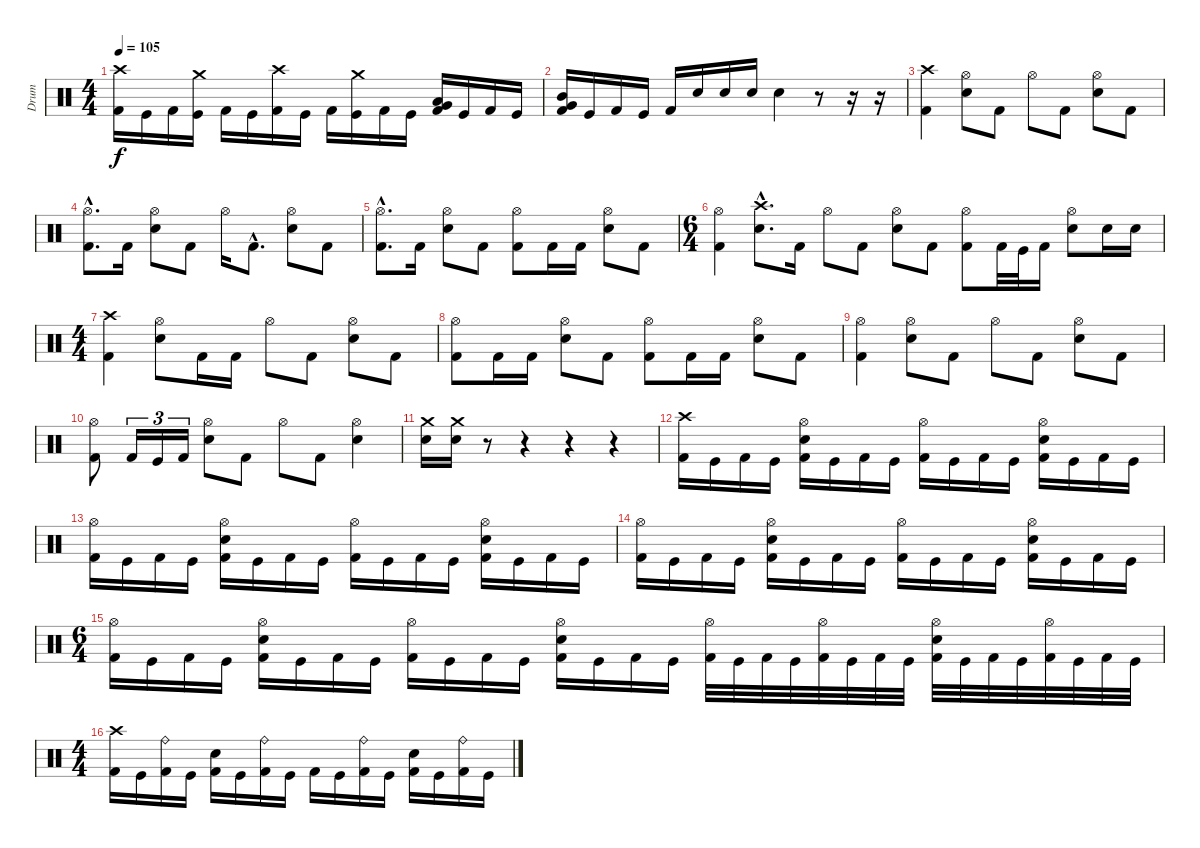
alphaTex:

\track ("Drum" "Drum") {instrument percussion}
\staff {score}
\articulation defaults
\ts (4 4)
\tempo 105
\clef neutral
\ks c
("Crash high (hit)" "Kick (hit) 2").16{dy f} "Kick (hit)".16 "Kick (hit) 2".16 ("Crash medium (hit)" "Kick (hit)").16 "Kick (hit) 2".16 "Kick (hit)".16 ("Crash high (hit)" "Kick (hit) 2").16 "Kick (hit)".16 "Kick (hit) 2".16 ("Crash medium (hit)" "Kick (hit)").16 "Kick (hit) 2".16 "Kick (hit)".16 ("Low Tom (hit)" "Very Low Tom (hit)" "Kick (hit) 2").16 "Kick (hit)".16 "Kick (hit) 2".16 "Kick (hit)".16 |
("Mid Tom (hit)" "Very Low Tom (hit)" "Kick (hit) 2").16 "Kick (hit)".16 "Kick (hit) 2".16 "Kick (hit)".16 "Kick (hit) 2".16 "Snare (hit) 2".16 "Snare (hit) 2".16 "Snare (hit) 2".16 "Snare (hit) 2".4 r.8 r.16 r.16 |
("Crash high (hit)" "Kick (hit) 2").4 ("Hi-Hat (open)" "Snare (hit) 2").8 "Kick (hit) 2".8 "Hi-Hat (open)".8 "Kick (hit) 2".8 ("Hi-Hat (open)" "Snare (hit) 2").8 "Kick (hit) 2".8 |
("Hi-Hat (open)"{hac} "Kick (hit) 2"{hac}).8{d} "Kick (hit) 2".16 ("Hi-Hat (open)" "Snare (hit) 2").8 "Kick (hit) 2".8 "Hi-Hat (open)".16 "Kick (hit) 2"{hac}.8{d} ("Hi-Hat (open)" "Snare (hit) 2").8 "Kick (hit) 2".8 |
("Hi-Hat (open)"{hac} "Kick (hit) 2"{hac}).8{d} "Kick (hit) 2".16 ("Hi-Hat (open)" "Snare (hit) 2").8 "Kick (hit) 2".8 ("Hi-Hat (open)" "Kick (hit) 2").8 "Kick (hit) 2".16 "Kick (hit) 2".16 ("Hi-Hat (open)" "Snare (hit) 2").8 "Kick (hit) 2".8 |
\ts (6 4)
("Hi-Hat (open)" "Kick (hit) 2").4 ("Crash high (hit)"{hac} "Snare (hit) 2"{hac}).8{d} "Kick (hit) 2".16 "Hi-Hat (open)".8 "Kick (hit) 2".8 ("Hi-Hat (open)" "Snare (hit) 2").8 "Kick (hit) 2".8 ("Hi-Hat (open)" "Kick (hit) 2").8 "Kick (hit) 2".32 "Kick (hit)".32 "Kick (hit) 2".16 ("Hi-Hat (open)" "Snare (hit) 2").8 "Snare (hit) 2".16 "Snare (hit) 2".16 |
\ts (4 4)
("Crash high (hit)" "Kick (hit) 2").4 ("Hi-Hat (open)" "Snare (hit) 2").8 "Kick (hit) 2".16 "Kick (hit) 2".16 "Hi-Hat (open)".8 "Kick (hit) 2".8 ("Hi-Hat (open)" "Snare (hit) 2").8 "Kick (hit) 2".8 |
("Hi-Hat (open)" "Kick (hit) 2").8 "Kick (hit) 2".16 "Kick (hit) 2".16 ("Hi-Hat (open)" "Snare (hit) 2").8 "Kick (hit) 2".8 ("Hi-Hat (open)" "Kick (hit) 2").8 "Kick (hit) 2".16 "Kick (hit) 2".16 ("Hi-Hat (open)" "Snare (hit) 2").8 "Kick (hit) 2".8 |
("Hi-Hat (open)" "Kick (hit) 2").4 ("Hi-Hat (open)" "Snare (hit) 2").8 "Kick (hit) 2".8 "Hi-Hat (open)".8 "Kick (hit) 2".8 ("Hi-Hat (open)" "Snare (hit) 2").8 "Kick (hit) 2".8 |
("Hi-Hat (open)" "Kick (hit) 2").8 "Kick (hit) 2".16{tu (3 2)} "Kick (hit)".16{tu (3 2)} "Kick (hit) 2".16{tu (3 2)} ("Hi-Hat (open)" "Snare (hit) 2").8 "Kick (hit) 2".8 "Hi-Hat (open)".8 "Kick (hit) 2".8 ("Hi-Hat (open)" "Snare (hit) 2").4 |
("Crash medium (hit)" "Snare (hit) 2").16 ("Crash medium (hit)" "Snare (hit) 2").16 r.8 r.4 r.4 r.4 |
("Crash high (hit)" "Kick (hit) 2").16 "Kick (hit)".16 "Kick (hit) 2".16 "Kick (hit)".16 ("Hi-Hat (open)" "Snare (hit) 2" "Kick (hit) 2").16 "Kick (hit)".16 "Kick (hit) 2".16 "Kick (hit)".16 ("Hi-Hat (open)" "Kick (hit) 2").16 "Kick (hit)".16 "Kick (hit) 2".16 "Kick (hit)".16 ("Hi-Hat (open)" "Snare (hit) 2" "Kick (hit) 2").16 "Kick (hit)".16 "Kick (hit) 2".16 "Kick (hit)".16 |
("Hi-Hat (open)" "Kick (hit) 2").16 "Kick (hit)".16 "Kick (hit) 2".16 "Kick (hit)".16 ("Hi-Hat (open)" "Snare (hit) 2" "Kick (hit) 2").16 "Kick (hit)".16 "Kick (hit) 2".16 "Kick (hit)".16 ("Hi-Hat (open)" "Kick (hit) 2").16 "Kick (hit)".16 "Kick (hit) 2".16 "Kick (hit)".16 ("Hi-Hat (open)" "Snare (hit) 2" "Kick (hit) 2").16 "Kick (hit)".16 "Kick (hit) 2".16 "Kick (hit)".16 |
("Hi-Hat (open)" "Kick (hit) 2").16 "Kick (hit)".16 "Kick (hit) 2".16 "Kick (hit)".16 ("Hi-Hat (open)" "Snare (hit) 2" "Kick (hit) 2").16 "Kick (hit)".16 "Kick (hit) 2".16 "Kick (hit)".16 ("Hi-Hat (open)" "Kick (hit) 2").16 "Kick (hit)".16 "Kick (hit) 2".16 "Kick (hit)".16 ("Hi-Hat (open)" "Snare (hit) 2" "Kick (hit) 2").16 "Kick (hit)".16 "Kick (hit) 2".16 "Kick (hit)".16 |
\ts (6 4)
("Hi-Hat (open)" "Kick (hit) 2").16 "Kick (hit)".16 "Kick (hit) 2".16 "Kick (hit)".16 ("Hi-Hat (open)" "Snare (hit) 2" "Kick (hit) 2").16 "Kick (hit)".16 "Kick (hit) 2".16 "Kick (hit)".16 ("Hi-Hat (open)" "Kick (hit) 2").16 "Kick (hit)".16 "Kick (hit) 2".16 "Kick (hit)".16 ("Hi-Hat (open)" "Snare (hit) 2" "Kick (hit) 2").16 "Kick (hit)".16 "Kick (hit) 2".16 "Kick (hit)".16 ("Hi-Hat (open)" "Kick (hit) 2").32 "Kick (hit)".32 "Kick (hit) 2".32 "Kick (hit)".32 ("Hi-Hat (open)" "Kick (hit) 2").32 "Kick (hit)".32 "Kick (hit) 2".32 "Kick (hit)".32 ("Hi-Hat (open)" "Snare (hit) 2" "Kick (hit) 2").32 "Kick (hit)".32 "Kick (hit) 2".32 "Kick (hit)".32 ("Hi-Hat (open)" "Kick (hit) 2").32 "Kick (hit)".32 "Kick (hit) 2".32 "Kick (hit)".32 |
\ts (4 4)
("Crash high (hit)" "Kick (hit) 2").16 "Kick (hit)".16 ("Ride (bell)" "Kick (hit) 2").16 "Kick (hit)".16 ("Snare (hit) 2" "Kick (hit) 2").16 "Kick (hit)".16 ("Ride (bell)" "Kick (hit) 2").16 "Kick (hit)".16 "Kick (hit) 2".16 "Kick (hit)".16 ("Ride (bell)" "Kick (hit) 2").16 "Kick (hit)".16 ("Snare (hit) 2" "Kick (hit) 2").16 "Kick (hit)".16 ("Ride (bell)" "Kick (hit) 2").16 "Kick (hit)".16
